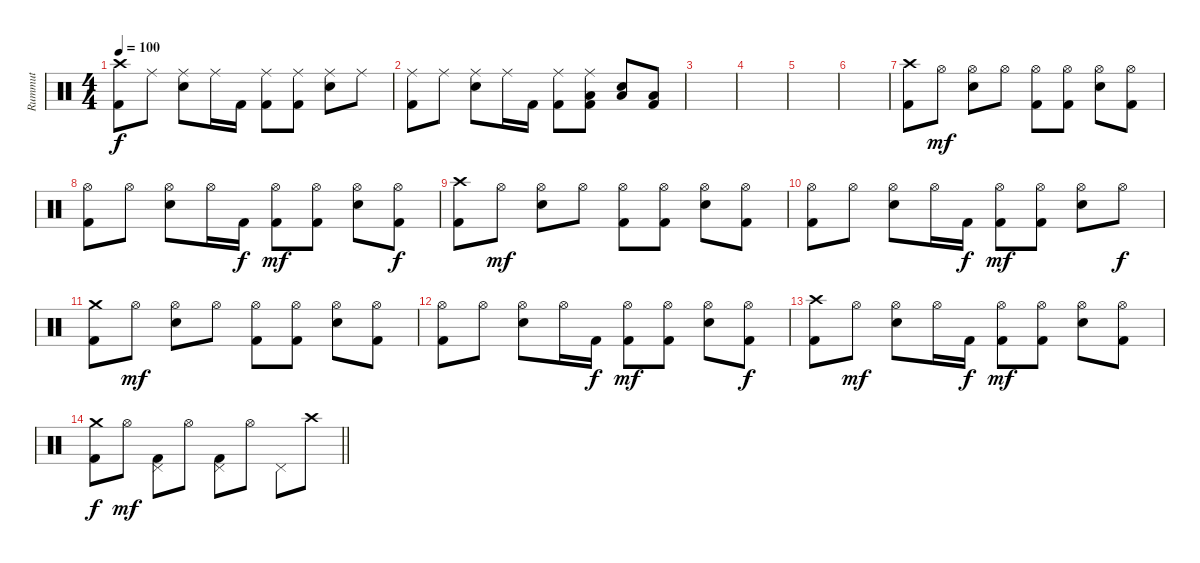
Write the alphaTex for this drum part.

\track ("Rummut" "Rummut") {instrument percussion}
\staff {score}
\articulation defaults
\ts (4 4)
\tempo 100
\clef neutral
\ks c
("Crash high (hit)" "Kick (hit) 2").8{dy f} "Ride (middle)".8 ("Ride (middle)" "Snare (hit) 2").8 "Ride (middle)".16 "Kick (hit) 2".16 ("Ride (middle)" "Kick (hit) 2").8 ("Ride (middle)" "Kick (hit) 2").8 ("Ride (middle)" "Snare (hit) 2").8 "Ride (middle)".8 |
("Ride (middle)" "Kick (hit) 2").8 "Ride (middle)".8 ("Ride (middle)" "Snare (hit) 2").8 "Ride (middle)".16 "Kick (hit) 2".16 ("Ride (middle)" "Kick (hit) 2").8 ("Ride (middle)" "Low Floor Tom (hit)" "Kick (hit) 2").8 ("Snare (hit) 2" "Low Floor Tom (hit)").8 ("Low Floor Tom (hit)" "Kick (hit) 2").8 |
|
|
|
|
("Crash high (hit)" "Kick (hit) 2").8 "Hi-Hat (open)".8{dy mf} ("Hi-Hat (open)" "Snare (hit) 2").8 "Hi-Hat (open)".8 ("Hi-Hat (open)" "Kick (hit) 2").8 ("Hi-Hat (open)" "Kick (hit) 2").8 ("Hi-Hat (open)" "Snare (hit) 2").8 ("Hi-Hat (open)" "Kick (hit) 2").8 |
("Hi-Hat (open)" "Kick (hit) 2").8 "Hi-Hat (open)".8 ("Hi-Hat (open)" "Snare (hit) 2").8 "Hi-Hat (open)".16 "Kick (hit) 2".16{dy f} ("Hi-Hat (open)" "Kick (hit) 2").8{dy mf} ("Hi-Hat (open)" "Kick (hit) 2").8 ("Hi-Hat (open)" "Snare (hit) 2").8 ("Hi-Hat (open)" "Kick (hit) 2").8{dy f} |
("Crash high (hit)" "Kick (hit) 2").8 "Hi-Hat (open)".8{dy mf} ("Hi-Hat (open)" "Snare (hit) 2").8 "Hi-Hat (open)".8 ("Hi-Hat (open)" "Kick (hit) 2").8 ("Hi-Hat (open)" "Kick (hit) 2").8 ("Hi-Hat (open)" "Snare (hit) 2").8 ("Hi-Hat (open)" "Kick (hit) 2").8 |
("Hi-Hat (open)" "Kick (hit) 2").8 "Hi-Hat (open)".8 ("Hi-Hat (open)" "Snare (hit) 2").8 "Hi-Hat (open)".16 "Kick (hit) 2".16{dy f} ("Hi-Hat (open)" "Kick (hit) 2").8{dy mf} ("Hi-Hat (open)" "Kick (hit) 2").8 ("Hi-Hat (open)" "Snare (hit) 2").8 "Hi-Hat (open)".8{dy f} |
("Crash medium (hit)" "Kick (hit) 2").8 "Hi-Hat (open)".8{dy mf} ("Hi-Hat (open)" "Snare (hit) 2").8 "Hi-Hat (open)".8 ("Hi-Hat (open)" "Kick (hit) 2").8 ("Hi-Hat (open)" "Kick (hit) 2").8 ("Hi-Hat (open)" "Snare (hit) 2").8 ("Hi-Hat (open)" "Kick (hit) 2").8 |
("Hi-Hat (open)" "Kick (hit) 2").8 "Hi-Hat (open)".8 ("Hi-Hat (open)" "Snare (hit) 2").8 "Hi-Hat (open)".16 "Kick (hit) 2".16{dy f} ("Hi-Hat (open)" "Kick (hit) 2").8{dy mf} ("Hi-Hat (open)" "Kick (hit) 2").8 ("Hi-Hat (open)" "Snare (hit) 2").8 ("Hi-Hat (open)" "Kick (hit) 2").8{dy f} |
("Crash high (hit)" "Kick (hit) 2").8 "Hi-Hat (open)".8{dy mf} ("Hi-Hat (open)" "Snare (hit) 2").8 "Hi-Hat (open)".16 "Kick (hit) 2".16{dy f} ("Hi-Hat (open)" "Kick (hit) 2").8{dy mf} ("Hi-Hat (open)" "Kick (hit) 2").8 ("Hi-Hat (open)" "Snare (hit) 2").8 ("Hi-Hat (open)" "Kick (hit) 2").8 |
\barLineRight lightlight
("Crash medium (hit)" "Kick (hit) 2").8{dy f} "Hi-Hat (open)".8{dy mf} ("Pedal Hi-Hat (hit)" "Kick (hit) 2").8 "Hi-Hat (open)".8 ("Pedal Hi-Hat (hit)" "Kick (hit) 2").8 "Hi-Hat (open)".8 "Pedal Hi-Hat (hit)".8 "Crash high (hit)".8
